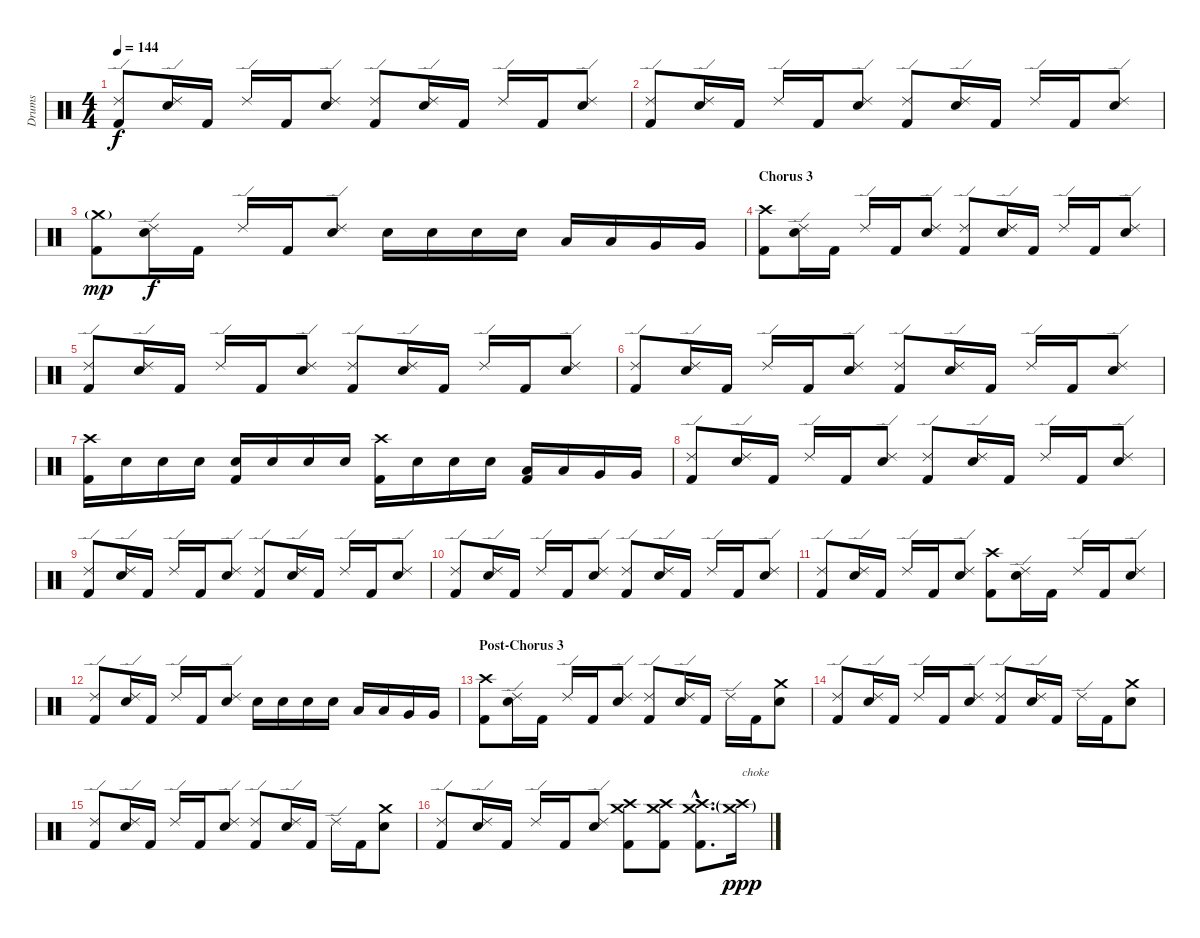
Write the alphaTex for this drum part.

\track ("Drums" "Drums") {instrument percussion}
\staff {score}
\articulation defaults
\ts (4 4)
\tempo 144
\clef neutral
\ks c
("Ride (edge) 2" "Kick (hit) 2").8{dy f} ("Ride (edge) 2" "Electric Snare (hit)").16 "Kick (hit) 2".16 "Ride (edge) 2".16 "Kick (hit) 2".16 ("Ride (edge) 2" "Electric Snare (hit)").8 ("Ride (edge) 2" "Kick (hit) 2").8 ("Ride (edge) 2" "Electric Snare (hit)").16 "Kick (hit) 2".16 "Ride (edge) 2".16 "Kick (hit) 2".16 ("Ride (edge) 2" "Electric Snare (hit)").8 |
("Ride (edge) 2" "Kick (hit) 2").8 ("Ride (edge) 2" "Electric Snare (hit)").16 "Kick (hit) 2".16 "Ride (edge) 2".16 "Kick (hit) 2".16 ("Ride (edge) 2" "Electric Snare (hit)").8 ("Ride (edge) 2" "Kick (hit) 2").8 ("Ride (edge) 2" "Electric Snare (hit)").16 "Kick (hit) 2".16 "Ride (edge) 2".16 "Kick (hit) 2".16 ("Ride (edge) 2" "Electric Snare (hit)").8 |
("Crash medium (hit)"{g} "Kick (hit) 2").8{dy mp} ("Ride (edge) 2" "Electric Snare (hit)").16{dy f} "Kick (hit) 2".16 "Ride (edge) 2".16 "Kick (hit) 2".16 ("Ride (edge) 2" "Electric Snare (hit)").8 "Electric Snare (hit)".16 "Electric Snare (hit)".16 "Electric Snare (hit)".16 "Electric Snare (hit)".16 "Low Tom (hit)".16 "Low Tom (hit)".16 "Very Low Tom (hit)".16 "Very Low Tom (hit)".16 |
\section ("" "Chorus 3")
("Crash high (hit)" "Kick (hit) 2").8 ("Ride (edge) 2" "Electric Snare (hit)").16 "Kick (hit) 2".16 "Ride (edge) 2".16 "Kick (hit) 2".16 ("Ride (edge) 2" "Electric Snare (hit)").8 ("Ride (edge) 2" "Kick (hit) 2").8 ("Ride (edge) 2" "Electric Snare (hit)").16 "Kick (hit) 2".16 "Ride (edge) 2".16 "Kick (hit) 2".16 ("Ride (edge) 2" "Electric Snare (hit)").8 |
("Ride (edge) 2" "Kick (hit) 2").8 ("Ride (edge) 2" "Electric Snare (hit)").16 "Kick (hit) 2".16 "Ride (edge) 2".16 "Kick (hit) 2".16 ("Ride (edge) 2" "Electric Snare (hit)").8 ("Ride (edge) 2" "Kick (hit) 2").8 ("Ride (edge) 2" "Electric Snare (hit)").16 "Kick (hit) 2".16 "Ride (edge) 2".16 "Kick (hit) 2".16 ("Ride (edge) 2" "Electric Snare (hit)").8 |
("Ride (edge) 2" "Kick (hit) 2").8 ("Ride (edge) 2" "Electric Snare (hit)").16 "Kick (hit) 2".16 "Ride (edge) 2".16 "Kick (hit) 2".16 ("Ride (edge) 2" "Electric Snare (hit)").8 ("Ride (edge) 2" "Kick (hit) 2").8 ("Ride (edge) 2" "Electric Snare (hit)").16 "Kick (hit) 2".16 "Ride (edge) 2".16 "Kick (hit) 2".16 ("Ride (edge) 2" "Electric Snare (hit)").8 |
("Crash high (hit)" "Kick (hit) 2").16 "Electric Snare (hit)".16 "Electric Snare (hit)".16 "Electric Snare (hit)".16 ("Electric Snare (hit)" "Kick (hit) 2").16 "Electric Snare (hit)".16 "Electric Snare (hit)".16 "Electric Snare (hit)".16 ("Crash high (hit)" "Kick (hit) 2").16 "Electric Snare (hit)".16 "Electric Snare (hit)".16 "Electric Snare (hit)".16 ("Low Tom (hit)" "Kick (hit) 2").16 "Low Tom (hit)".16 "Very Low Tom (hit)".16 "Very Low Tom (hit)".16 |
("Ride (edge) 2" "Kick (hit) 2").8 ("Ride (edge) 2" "Electric Snare (hit)").16 "Kick (hit) 2".16 "Ride (edge) 2".16 "Kick (hit) 2".16 ("Ride (edge) 2" "Electric Snare (hit)").8 ("Ride (edge) 2" "Kick (hit) 2").8 ("Ride (edge) 2" "Electric Snare (hit)").16 "Kick (hit) 2".16 "Ride (edge) 2".16 "Kick (hit) 2".16 ("Ride (edge) 2" "Electric Snare (hit)").8 |
("Ride (edge) 2" "Kick (hit) 2").8 ("Ride (edge) 2" "Electric Snare (hit)").16 "Kick (hit) 2".16 "Ride (edge) 2".16 "Kick (hit) 2".16 ("Ride (edge) 2" "Electric Snare (hit)").8 ("Ride (edge) 2" "Kick (hit) 2").8 ("Ride (edge) 2" "Electric Snare (hit)").16 "Kick (hit) 2".16 "Ride (edge) 2".16 "Kick (hit) 2".16 ("Ride (edge) 2" "Electric Snare (hit)").8 |
("Ride (edge) 2" "Kick (hit) 2").8 ("Ride (edge) 2" "Electric Snare (hit)").16 "Kick (hit) 2".16 "Ride (edge) 2".16 "Kick (hit) 2".16 ("Ride (edge) 2" "Electric Snare (hit)").8 ("Ride (edge) 2" "Kick (hit) 2").8 ("Ride (edge) 2" "Electric Snare (hit)").16 "Kick (hit) 2".16 "Ride (edge) 2".16 "Kick (hit) 2".16 ("Ride (edge) 2" "Electric Snare (hit)").8 |
("Ride (edge) 2" "Kick (hit) 2").8 ("Ride (edge) 2" "Electric Snare (hit)").16 "Kick (hit) 2".16 "Ride (edge) 2".16 "Kick (hit) 2".16 ("Ride (edge) 2" "Electric Snare (hit)").8 ("Crash high (hit)" "Kick (hit) 2").8 ("Ride (edge) 2" "Electric Snare (hit)").16 "Kick (hit) 2".16 "Ride (edge) 2".16 "Kick (hit) 2".16 ("Ride (edge) 2" "Electric Snare (hit)").8 |
("Ride (edge) 2" "Kick (hit) 2").8 ("Ride (edge) 2" "Electric Snare (hit)").16 "Kick (hit) 2".16 "Ride (edge) 2".16 "Kick (hit) 2".16 ("Ride (edge) 2" "Electric Snare (hit)").8 "Electric Snare (hit)".16 "Electric Snare (hit)".16 "Electric Snare (hit)".16 "Electric Snare (hit)".16 "Low Tom (hit)".16 "Low Tom (hit)".16 "Very Low Tom (hit)".16 "Very Low Tom (hit)".16 |
\section ("" "Post-Chorus 3")
("Crash high (hit)" "Kick (hit) 2").8 ("Ride (edge) 2" "Electric Snare (hit)").16 "Kick (hit) 2".16 "Ride (edge) 2".16 "Kick (hit) 2".16 ("Ride (edge) 2" "Electric Snare (hit)").8 ("Ride (edge) 2" "Kick (hit) 2").8 ("Ride (edge) 2" "Electric Snare (hit)").16 "Kick (hit) 2".16 "Ride (edge) 2".16 "Kick (hit) 2".16 ("Crash medium (hit)" "Electric Snare (hit)").8 |
("Ride (edge) 2" "Kick (hit) 2").8 ("Ride (edge) 2" "Electric Snare (hit)").16 "Kick (hit) 2".16 "Ride (edge) 2".16 "Kick (hit) 2".16 ("Ride (edge) 2" "Electric Snare (hit)").8 ("Ride (edge) 2" "Kick (hit) 2").8 ("Ride (edge) 2" "Electric Snare (hit)").16 "Kick (hit) 2".16 "Ride (edge) 2".16 "Kick (hit) 2".16 ("Crash medium (hit)" "Electric Snare (hit)").8 |
("Ride (edge) 2" "Kick (hit) 2").8 ("Ride (edge) 2" "Electric Snare (hit)").16 "Kick (hit) 2".16 "Ride (edge) 2".16 "Kick (hit) 2".16 ("Ride (edge) 2" "Electric Snare (hit)").8 ("Ride (edge) 2" "Kick (hit) 2").8 ("Ride (edge) 2" "Electric Snare (hit)").16 "Kick (hit) 2".16 "Ride (edge) 2".16 "Kick (hit) 2".16 ("Crash medium (hit)" "Electric Snare (hit)").8 |
("Ride (edge) 2" "Kick (hit) 2").8 ("Ride (edge) 2" "Electric Snare (hit)").16 "Kick (hit) 2".16 "Ride (edge) 2".16 "Kick (hit) 2".16 ("Ride (edge) 2" "Electric Snare (hit)").8 ("Crash high (hit)" "Crash medium (hit)" "Kick (hit) 2").8 ("Crash high (hit)" "Crash medium (hit)" "Kick (hit) 2").8 ("Crash high (hit)"{hac} "Crash medium (hit)"{hac} "Kick (hit) 2"{hac}).8{d} ("Crash high (hit)"{g} "Crash medium (hit)"{g}).16{txt "choke" dy ppp}
